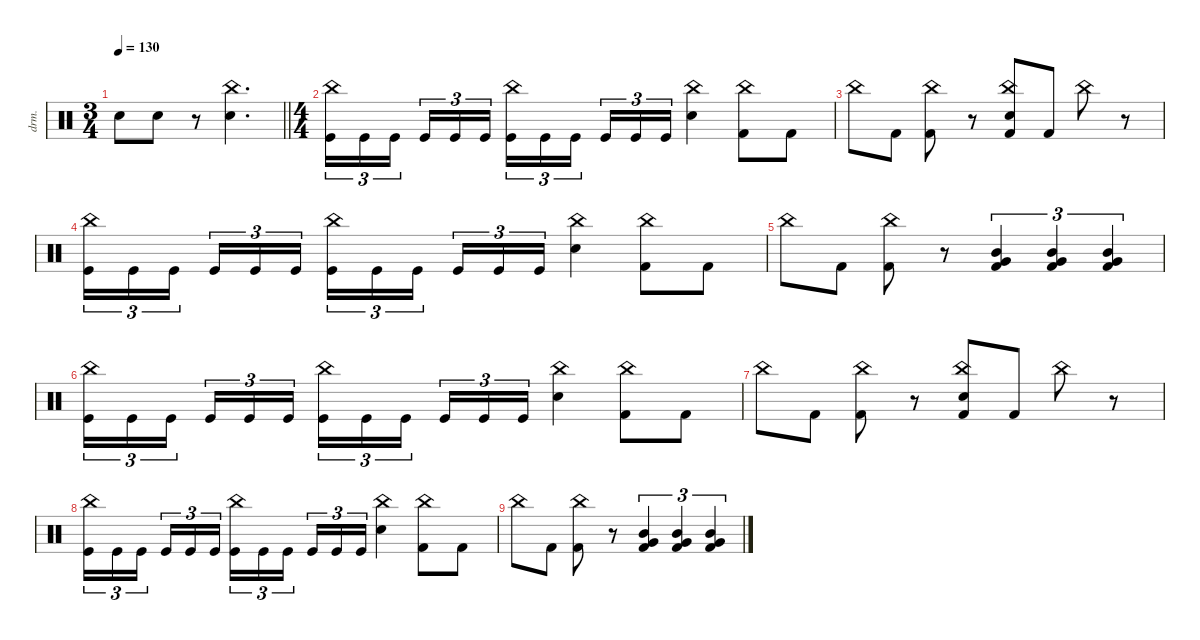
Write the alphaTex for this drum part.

\defaultSystemsLayout 4
\hideDynamics
\bracketExtendMode nobrackets
\track ("Manouche" "drm.") {instrument percussion}
\staff {score}
\articulation defaults
\ts (3 4)
\tempo 130
\clef neutral
\barLineRight lightlight
\ks c "Snare (hit) 2".8{dy f} "Snare (hit) 2".8
r.8 ("China (hit)" "Snare (hit) 2").4{d} |
\ts (4 4)
\beaming (8 2 2 2 2)
("Kick (hit)" "China (hit)").16{tu (3 2)} "Kick (hit)".16{tu (3 2)} "Kick (hit)".16{tu (3 2)} "Kick (hit)".16{tu (3 2)} "Kick (hit)".16{tu (3 2)} "Kick (hit)".16{tu (3 2)} ("China (hit)" "Kick (hit)").16{tu (3 2)} "Kick (hit)".16{tu (3 2)} "Kick (hit)".16{tu (3 2)} "Kick (hit)".16{tu (3 2)} "Kick (hit)".16{tu (3 2)} "Kick (hit)".16{tu (3 2)} ("China (hit)" "Snare (hit) 2").4 ("Kick (hit) 2" "China (hit)").8 "Kick (hit) 2".8 |
"China (hit)".8 "Kick (hit) 2".8 ("Kick (hit) 2" "China (hit)").8 r.8 ("Kick (hit) 2" "China (hit)" "Snare (hit) 2").8 "Kick (hit) 2".8 "China (hit)".8 r.8 |
("Kick (hit)" "China (hit)").16{tu (3 2)} "Kick (hit)".16{tu (3 2)} "Kick (hit)".16{tu (3 2)} "Kick (hit)".16{tu (3 2)} "Kick (hit)".16{tu (3 2)} "Kick (hit)".16{tu (3 2)} ("China (hit)" "Kick (hit)").16{tu (3 2)} "Kick (hit)".16{tu (3 2)} "Kick (hit)".16{tu (3 2)} "Kick (hit)".16{tu (3 2)} "Kick (hit)".16{tu (3 2)} "Kick (hit)".16{tu (3 2)} ("China (hit)" "Snare (hit) 2").4 ("Kick (hit) 2" "China (hit)").8 "Kick (hit) 2".8 |
"China (hit)".8 "Kick (hit) 2".8 ("Kick (hit) 2" "China (hit)").8 r.8 ("Kick (hit) 2" "Mid Tom (hit)" "Very Low Tom (hit)").4{tu (3 2)} ("Kick (hit) 2" "Mid Tom (hit)" "Very Low Tom (hit)").4{tu (3 2)} ("Kick (hit) 2" "Mid Tom (hit)" "Very Low Tom (hit)").4{tu (3 2)} |
("Kick (hit)" "China (hit)").16{tu (3 2)} "Kick (hit)".16{tu (3 2)} "Kick (hit)".16{tu (3 2)} "Kick (hit)".16{tu (3 2)} "Kick (hit)".16{tu (3 2)} "Kick (hit)".16{tu (3 2)} ("China (hit)" "Kick (hit)").16{tu (3 2)} "Kick (hit)".16{tu (3 2)} "Kick (hit)".16{tu (3 2)} "Kick (hit)".16{tu (3 2)} "Kick (hit)".16{tu (3 2)} "Kick (hit)".16{tu (3 2)} ("China (hit)" "Snare (hit) 2").4 ("Kick (hit) 2" "China (hit)").8 "Kick (hit) 2".8 |
"China (hit)".8 "Kick (hit) 2".8 ("Kick (hit) 2" "China (hit)").8 r.8 ("Kick (hit) 2" "China (hit)" "Snare (hit) 2").8 "Kick (hit) 2".8 "China (hit)".8 r.8 |
("Kick (hit)" "China (hit)").16{tu (3 2)} "Kick (hit)".16{tu (3 2)} "Kick (hit)".16{tu (3 2)} "Kick (hit)".16{tu (3 2)} "Kick (hit)".16{tu (3 2)} "Kick (hit)".16{tu (3 2)} ("China (hit)" "Kick (hit)").16{tu (3 2)} "Kick (hit)".16{tu (3 2)} "Kick (hit)".16{tu (3 2)} "Kick (hit)".16{tu (3 2)} "Kick (hit)".16{tu (3 2)} "Kick (hit)".16{tu (3 2)} ("China (hit)" "Snare (hit) 2").4 ("Kick (hit) 2" "China (hit)").8 "Kick (hit) 2".8 |
"China (hit)".8 "Kick (hit) 2".8 ("Kick (hit) 2" "China (hit)").8 r.8 ("Kick (hit) 2" "Mid Tom (hit)" "Very Low Tom (hit)").4{tu (3 2)} ("Kick (hit) 2" "Mid Tom (hit)" "Very Low Tom (hit)").4{tu (3 2)} ("Kick (hit) 2" "Mid Tom (hit)" "Very Low Tom (hit)").4{tu (3 2)}
